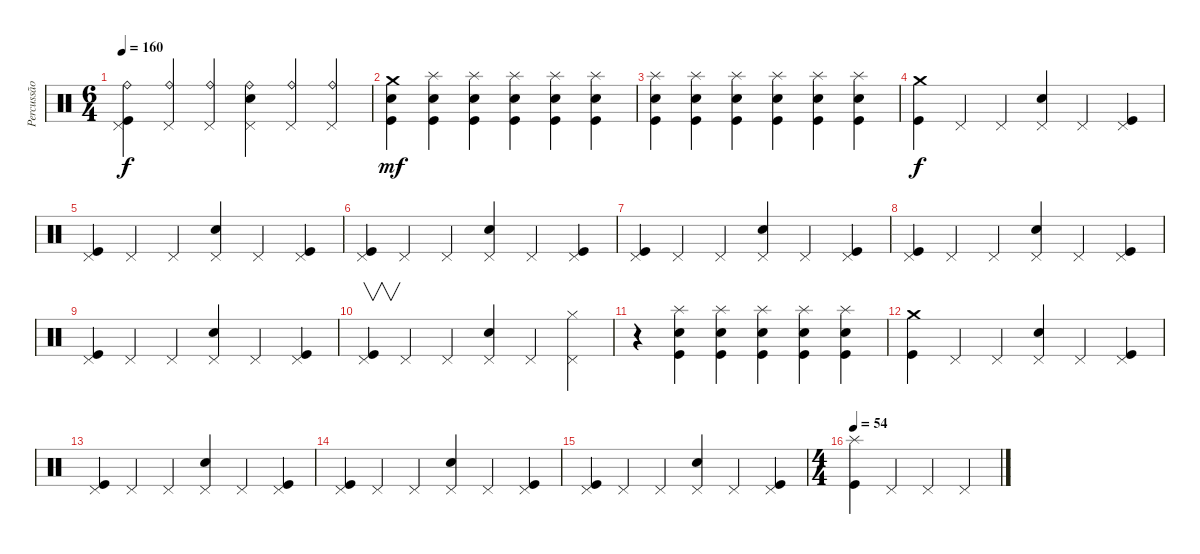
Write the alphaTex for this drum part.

\track ("Percussão" "Percussão") {instrument percussion}
\staff {score}
\articulation defaults
\ts (6 4)
\tempo 160
\clef neutral
\ks c
("Ride (bell)" "Pedal Hi-Hat (hit)" "Kick (hit)").4{dy f} ("Ride (bell)" "Pedal Hi-Hat (hit)").4 ("Ride (bell)" "Pedal Hi-Hat (hit)").4 ("Ride (bell)" "Pedal Hi-Hat (hit)" "Snare (hit) 2").4 ("Ride (bell)" "Pedal Hi-Hat (hit)").4 ("Ride (bell)" "Pedal Hi-Hat (hit)").4 |
("Crash medium (hit)" "Snare (hit) 2" "Kick (hit)").4{dy mf} ("Splash (hit)" "Snare (hit) 2" "Kick (hit)").4 ("Splash (hit)" "Snare (hit) 2" "Kick (hit)").4 ("Splash (hit)" "Snare (hit) 2" "Kick (hit)").4 ("Splash (hit)" "Snare (hit) 2" "Kick (hit)").4 ("Splash (hit)" "Snare (hit) 2" "Kick (hit)").4 |
("Splash (hit)" "Snare (hit) 2" "Kick (hit)").4 ("Splash (hit)" "Snare (hit) 2" "Kick (hit)").4 ("Splash (hit)" "Snare (hit) 2" "Kick (hit)").4 ("Splash (hit)" "Snare (hit) 2" "Kick (hit)").4 ("Splash (hit)" "Snare (hit) 2" "Kick (hit)").4 ("Splash (hit)" "Snare (hit) 2" "Kick (hit)").4 |
("Crash medium (hit)" "Kick (hit)").4{dy f} "Pedal Hi-Hat (hit)".4 "Pedal Hi-Hat (hit)".4 ("Pedal Hi-Hat (hit)" "Snare (hit) 2").4 "Pedal Hi-Hat (hit)".4 ("Pedal Hi-Hat (hit)" "Kick (hit)").4 |
("Pedal Hi-Hat (hit)" "Kick (hit)").4 "Pedal Hi-Hat (hit)".4 "Pedal Hi-Hat (hit)".4 ("Pedal Hi-Hat (hit)" "Snare (hit) 2").4 "Pedal Hi-Hat (hit)".4 ("Pedal Hi-Hat (hit)" "Kick (hit)").4 |
("Pedal Hi-Hat (hit)" "Kick (hit)").4 "Pedal Hi-Hat (hit)".4 "Pedal Hi-Hat (hit)".4 ("Pedal Hi-Hat (hit)" "Snare (hit) 2").4 "Pedal Hi-Hat (hit)".4 ("Pedal Hi-Hat (hit)" "Kick (hit)").4 |
("Pedal Hi-Hat (hit)" "Kick (hit)").4 "Pedal Hi-Hat (hit)".4 "Pedal Hi-Hat (hit)".4 ("Pedal Hi-Hat (hit)" "Snare (hit) 2").4 "Pedal Hi-Hat (hit)".4 ("Pedal Hi-Hat (hit)" "Kick (hit)").4 |
("Pedal Hi-Hat (hit)" "Kick (hit)").4 "Pedal Hi-Hat (hit)".4 "Pedal Hi-Hat (hit)".4 ("Pedal Hi-Hat (hit)" "Snare (hit) 2").4 "Pedal Hi-Hat (hit)".4 ("Pedal Hi-Hat (hit)" "Kick (hit)").4 |
("Pedal Hi-Hat (hit)" "Kick (hit)").4 "Pedal Hi-Hat (hit)".4 "Pedal Hi-Hat (hit)".4 ("Pedal Hi-Hat (hit)" "Snare (hit) 2").4 "Pedal Hi-Hat (hit)".4 ("Pedal Hi-Hat (hit)" "Kick (hit)").4 |
("Pedal Hi-Hat (hit)" "Kick (hit)").4{v} "Pedal Hi-Hat (hit)".4 "Pedal Hi-Hat (hit)".4 ("Pedal Hi-Hat (hit)" "Snare (hit) 2").4 "Pedal Hi-Hat (hit)".4 ("Pedal Hi-Hat (hit)" "Hi-Hat (closed)").4 |
r.4 ("Splash (hit)" "Snare (hit) 2" "Kick (hit)").4 ("Splash (hit)" "Snare (hit) 2" "Kick (hit)").4 ("Splash (hit)" "Snare (hit) 2" "Kick (hit)").4 ("Splash (hit)" "Snare (hit) 2" "Kick (hit)").4 ("Splash (hit)" "Snare (hit) 2" "Kick (hit)").4 |
("Crash medium (hit)" "Kick (hit)").4 "Pedal Hi-Hat (hit)".4 "Pedal Hi-Hat (hit)".4 ("Pedal Hi-Hat (hit)" "Snare (hit) 2").4 "Pedal Hi-Hat (hit)".4 ("Pedal Hi-Hat (hit)" "Kick (hit)").4 |
("Pedal Hi-Hat (hit)" "Kick (hit)").4 "Pedal Hi-Hat (hit)".4 "Pedal Hi-Hat (hit)".4 ("Pedal Hi-Hat (hit)" "Snare (hit) 2").4 "Pedal Hi-Hat (hit)".4 ("Pedal Hi-Hat (hit)" "Kick (hit)").4 |
("Pedal Hi-Hat (hit)" "Kick (hit)").4 "Pedal Hi-Hat (hit)".4 "Pedal Hi-Hat (hit)".4 ("Pedal Hi-Hat (hit)" "Snare (hit) 2").4 "Pedal Hi-Hat (hit)".4 ("Pedal Hi-Hat (hit)" "Kick (hit)").4 |
("Pedal Hi-Hat (hit)" "Kick (hit)").4 "Pedal Hi-Hat (hit)".4 "Pedal Hi-Hat (hit)".4 ("Pedal Hi-Hat (hit)" "Snare (hit) 2").4 "Pedal Hi-Hat (hit)".4 ("Pedal Hi-Hat (hit)" "Kick (hit)").4 |
\ts (4 4)
\tempo 54
("Splash (hit)" "Kick (hit)").4 "Pedal Hi-Hat (hit)".4 "Pedal Hi-Hat (hit)".4 "Pedal Hi-Hat (hit)".4
